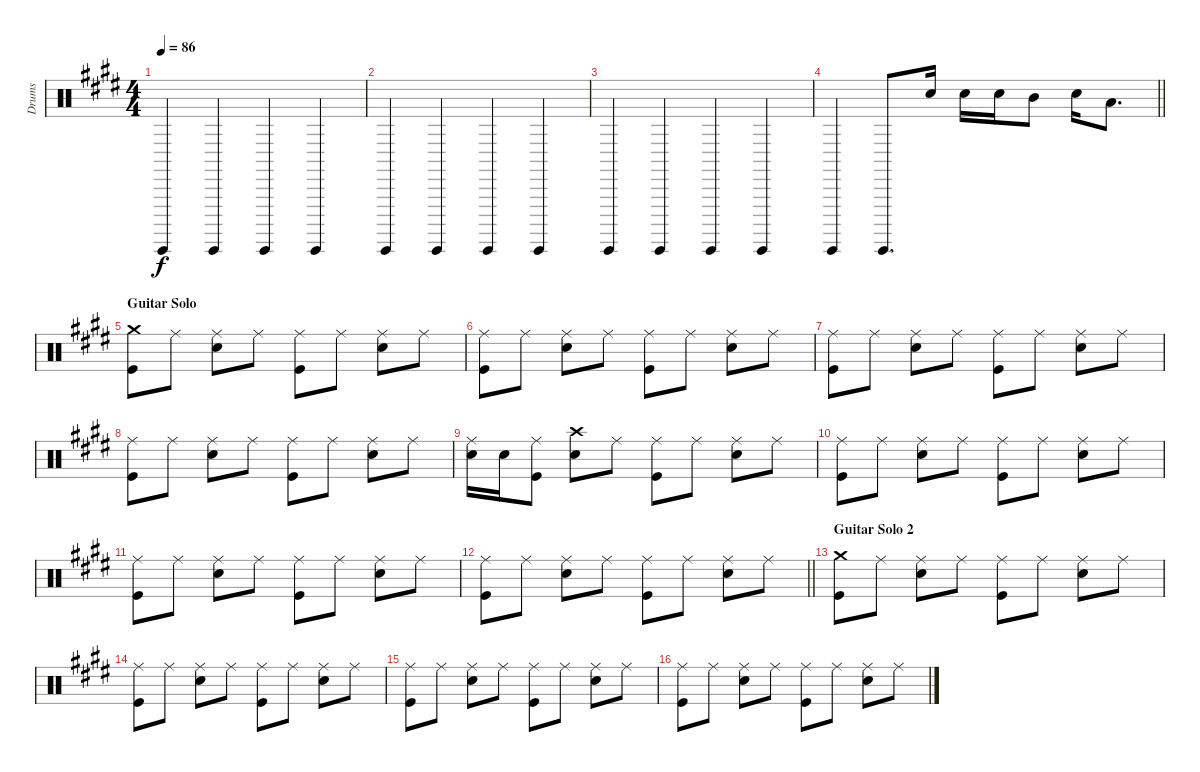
\track ("Drums" "Drums") {instrument percussion}
\staff {score}
\articulation defaults
\ts (4 4)
\tempo 86
\clef neutral
\ks e "Guiro (hit)".4{dy f} "Guiro (hit)".4 "Guiro (hit)".4 "Guiro (hit)".4
|
"Guiro (hit)".4 "Guiro (hit)".4 "Guiro (hit)".4 "Guiro (hit)".4 |
"Guiro (hit)".4 "Guiro (hit)".4 "Guiro (hit)".4 "Guiro (hit)".4 |
\barLineRight lightlight "Guiro (hit)".4 "Guiro (hit)".8{d} "Snare (hit) 2".16 "Snare (hit) 2".16 "Snare (hit) 2".16 "Mid Tom (hit)".8 "Snare (hit) 2".16 "Low Tom (hit)".8{d}
|
\section ("" "Guitar Solo")
("Crash medium (hit)" "Kick (hit)").8 "Ride (middle)".8 ("Ride (middle)" "Snare (hit) 2").8 "Ride (middle)".8 ("Ride (middle)" "Kick (hit)").8 "Ride (middle)".8 ("Ride (middle)" "Snare (hit) 2").8 "Ride (middle)".8 |
("Ride (middle)" "Kick (hit)").8 "Ride (middle)".8 ("Ride (middle)" "Snare (hit) 2").8 "Ride (middle)".8 ("Ride (middle)" "Kick (hit)").8 "Ride (middle)".8 ("Ride (middle)" "Snare (hit) 2").8 "Ride (middle)".8 |
("Ride (middle)" "Kick (hit)").8 "Ride (middle)".8 ("Ride (middle)" "Snare (hit) 2").8 "Ride (middle)".8 ("Ride (middle)" "Kick (hit)").8 "Ride (middle)".8 ("Ride (middle)" "Snare (hit) 2").8 "Ride (middle)".8 |
("Ride (middle)" "Kick (hit)").8 "Ride (middle)".8 ("Ride (middle)" "Snare (hit) 2").8 "Ride (middle)".8 ("Ride (middle)" "Kick (hit)").8 "Ride (middle)".8 ("Ride (middle)" "Snare (hit) 2").8 "Ride (middle)".8 |
("Ride (middle)" "Snare (hit) 2").16 "Snare (hit) 2".16 ("Ride (middle)" "Kick (hit)").8 ("Crash high (hit)" "Snare (hit) 2").8 "Ride (middle)".8 ("Ride (middle)" "Kick (hit)").8 "Ride (middle)".8 ("Ride (middle)" "Snare (hit) 2").8 "Ride (middle)".8 |
("Ride (middle)" "Kick (hit)").8 "Ride (middle)".8 ("Ride (middle)" "Snare (hit) 2").8 "Ride (middle)".8 ("Ride (middle)" "Kick (hit)").8 "Ride (middle)".8 ("Ride (middle)" "Snare (hit) 2").8 "Ride (middle)".8 |
("Ride (middle)" "Kick (hit)").8 "Ride (middle)".8 ("Ride (middle)" "Snare (hit) 2").8 "Ride (middle)".8 ("Ride (middle)" "Kick (hit)").8 "Ride (middle)".8 ("Ride (middle)" "Snare (hit) 2").8 "Ride (middle)".8 |
\barLineRight lightlight
("Ride (middle)" "Kick (hit)").8 "Ride (middle)".8 ("Ride (middle)" "Snare (hit) 2").8 "Ride (middle)".8 ("Ride (middle)" "Kick (hit)").8 "Ride (middle)".8 ("Ride (middle)" "Snare (hit) 2").8 "Ride (middle)".8 |
\section ("" "Guitar Solo 2")
("Crash medium (hit)" "Kick (hit)").8 "Ride (middle)".8 ("Ride (middle)" "Snare (hit) 2").8 "Ride (middle)".8 ("Ride (middle)" "Kick (hit)").8 "Ride (middle)".8 ("Ride (middle)" "Snare (hit) 2").8 "Ride (middle)".8 |
("Ride (middle)" "Kick (hit)").8 "Ride (middle)".8 ("Ride (middle)" "Snare (hit) 2").8 "Ride (middle)".8 ("Ride (middle)" "Kick (hit)").8 "Ride (middle)".8 ("Ride (middle)" "Snare (hit) 2").8 "Ride (middle)".8 |
("Ride (middle)" "Kick (hit)").8 "Ride (middle)".8 ("Ride (middle)" "Snare (hit) 2").8 "Ride (middle)".8 ("Ride (middle)" "Kick (hit)").8 "Ride (middle)".8 ("Ride (middle)" "Snare (hit) 2").8 "Ride (middle)".8 |
("Ride (middle)" "Kick (hit)").8 "Ride (middle)".8 ("Ride (middle)" "Snare (hit) 2").8 "Ride (middle)".8 ("Ride (middle)" "Kick (hit)").8 "Ride (middle)".8 ("Ride (middle)" "Snare (hit) 2").8 "Ride (middle)".8
